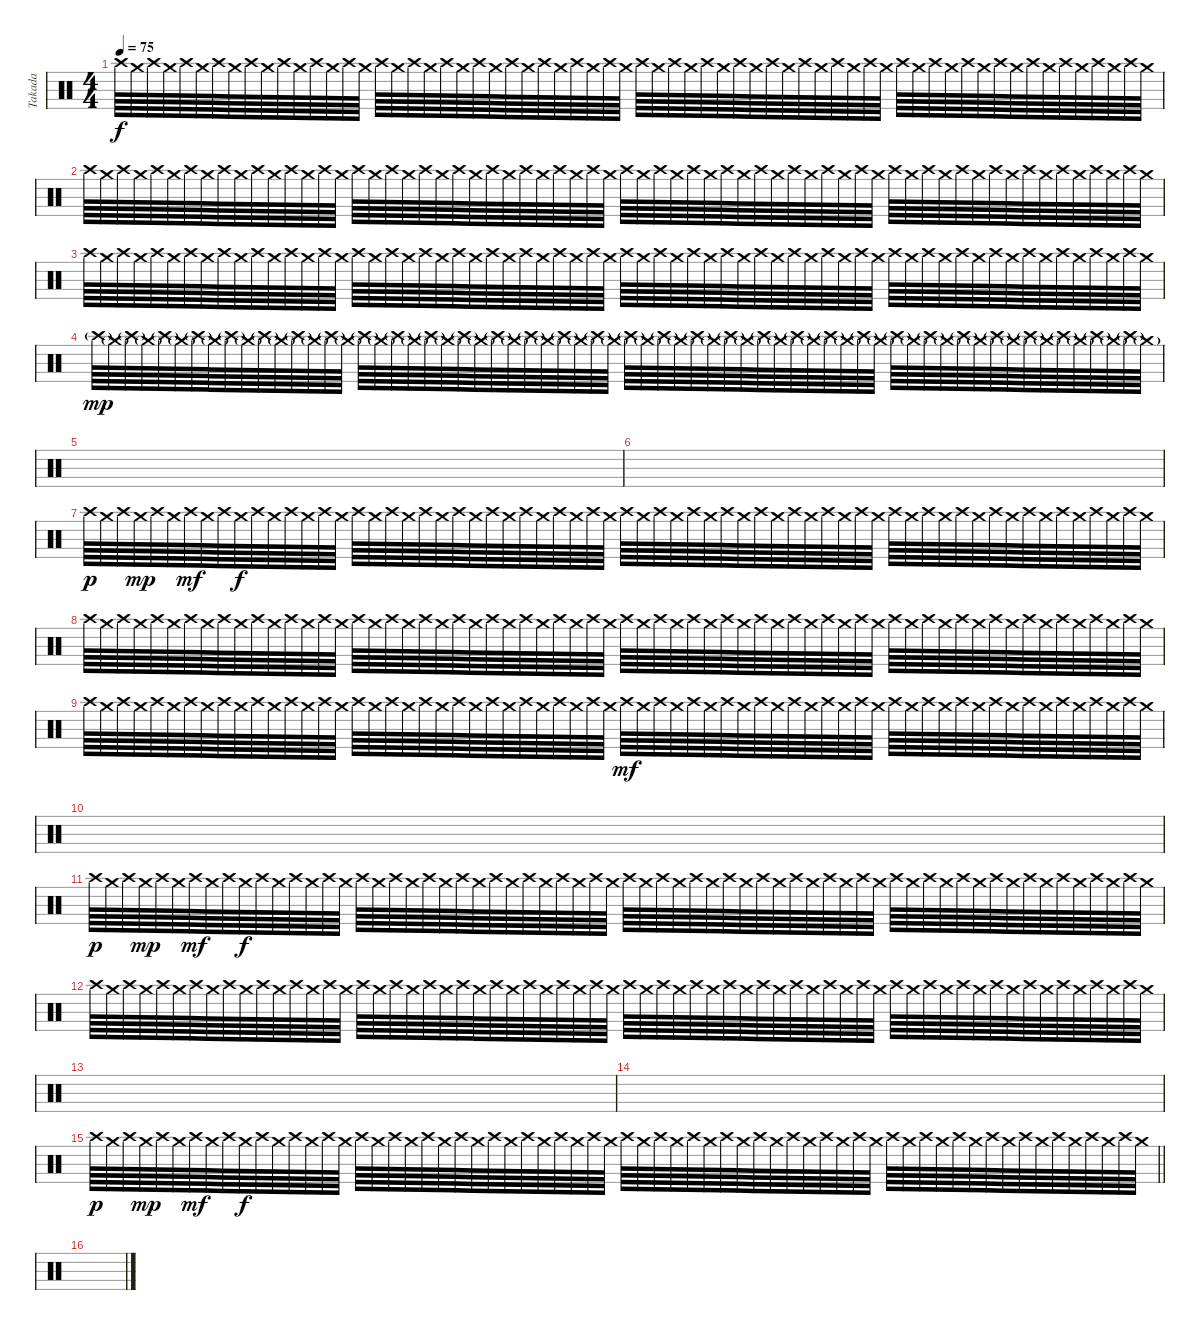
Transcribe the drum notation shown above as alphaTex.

\track ("Takada" "Takada") {instrument percussion}
\staff {score}
\articulation defaults
\ts (4 4)
\tempo 75
\clef neutral
\ks c "Crash high (hit)".64{dy f} "Crash medium (hit)".64 "Crash high (hit)".64 "Crash medium (hit)".64 "Crash high (hit)".64 "Crash medium (hit)".64 "Crash high (hit)".64 "Crash medium (hit)".64 "Crash high (hit)".64 "Crash medium (hit)".64 "Crash high (hit)".64 "Crash medium (hit)".64 "Crash high (hit)".64 "Crash medium (hit)".64 "Crash high (hit)".64 "Crash medium (hit)".64 "Crash high (hit)".64 "Crash medium (hit)".64 "Crash high (hit)".64 "Crash medium (hit)".64 "Crash high (hit)".64 "Crash medium (hit)".64 "Crash high (hit)".64 "Crash medium (hit)".64 "Crash high (hit)".64 "Crash medium (hit)".64 "Crash high (hit)".64 "Crash medium (hit)".64 "Crash high (hit)".64 "Crash medium (hit)".64 "Crash high (hit)".64 "Crash medium (hit)".64 "Crash high (hit)".64 "Crash medium (hit)".64 "Crash high (hit)".64 "Crash medium (hit)".64 "Crash high (hit)".64 "Crash medium (hit)".64 "Crash high (hit)".64 "Crash medium (hit)".64 "Crash high (hit)".64 "Crash medium (hit)".64 "Crash high (hit)".64 "Crash medium (hit)".64 "Crash high (hit)".64 "Crash medium (hit)".64 "Crash high (hit)".64 "Crash medium (hit)".64 "Crash high (hit)".64 "Crash medium (hit)".64 "Crash high (hit)".64 "Crash medium (hit)".64 "Crash high (hit)".64 "Crash medium (hit)".64 "Crash high (hit)".64 "Crash medium (hit)".64 "Crash high (hit)".64 "Crash medium (hit)".64 "Crash high (hit)".64 "Crash medium (hit)".64 "Crash high (hit)".64 "Crash medium (hit)".64 "Crash high (hit)".64 "Crash medium (hit)".64
|
"Crash high (hit)".64 "Crash medium (hit)".64 "Crash high (hit)".64 "Crash medium (hit)".64 "Crash high (hit)".64 "Crash medium (hit)".64 "Crash high (hit)".64 "Crash medium (hit)".64 "Crash high (hit)".64{volume 1} "Crash medium (hit)".64 "Crash high (hit)".64 "Crash medium (hit)".64 "Crash high (hit)".64 "Crash medium (hit)".64 "Crash high (hit)".64 "Crash medium (hit)".64 "Crash high (hit)".64 "Crash medium (hit)".64 "Crash high (hit)".64 "Crash medium (hit)".64 "Crash high (hit)".64 "Crash medium (hit)".64 "Crash high (hit)".64 "Crash medium (hit)".64 "Crash high (hit)".64 "Crash medium (hit)".64 "Crash high (hit)".64 "Crash medium (hit)".64 "Crash high (hit)".64 "Crash medium (hit)".64 "Crash high (hit)".64 "Crash medium (hit)".64 "Crash high (hit)".64 "Crash medium (hit)".64 "Crash high (hit)".64 "Crash medium (hit)".64 "Crash high (hit)".64 "Crash medium (hit)".64 "Crash high (hit)".64 "Crash medium (hit)".64 "Crash high (hit)".64 "Crash medium (hit)".64 "Crash high (hit)".64 "Crash medium (hit)".64 "Crash high (hit)".64 "Crash medium (hit)".64 "Crash high (hit)".64 "Crash medium (hit)".64 "Crash high (hit)".64 "Crash medium (hit)".64 "Crash high (hit)".64 "Crash medium (hit)".64 "Crash high (hit)".64 "Crash medium (hit)".64 "Crash high (hit)".64 "Crash medium (hit)".64 "Crash high (hit)".64 "Crash medium (hit)".64 "Crash high (hit)".64 "Crash medium (hit)".64 "Crash high (hit)".64 "Crash medium (hit)".64 "Crash high (hit)".64 "Crash medium (hit)".64 |
"Crash high (hit)".64 "Crash medium (hit)".64 "Crash high (hit)".64 "Crash medium (hit)".64 "Crash high (hit)".64 "Crash medium (hit)".64 "Crash high (hit)".64 "Crash medium (hit)".64 "Crash high (hit)".64 "Crash medium (hit)".64 "Crash high (hit)".64 "Crash medium (hit)".64 "Crash high (hit)".64 "Crash medium (hit)".64 "Crash high (hit)".64 "Crash medium (hit)".64 "Crash high (hit)".64 "Crash medium (hit)".64 "Crash high (hit)".64 "Crash medium (hit)".64 "Crash high (hit)".64 "Crash medium (hit)".64 "Crash high (hit)".64 "Crash medium (hit)".64 "Crash high (hit)".64 "Crash medium (hit)".64 "Crash high (hit)".64 "Crash medium (hit)".64 "Crash high (hit)".64 "Crash medium (hit)".64 "Crash high (hit)".64 "Crash medium (hit)".64 "Crash high (hit)".64 "Crash medium (hit)".64 "Crash high (hit)".64 "Crash medium (hit)".64 "Crash high (hit)".64 "Crash medium (hit)".64 "Crash high (hit)".64 "Crash medium (hit)".64 "Crash high (hit)".64 "Crash medium (hit)".64 "Crash high (hit)".64 "Crash medium (hit)".64 "Crash high (hit)".64 "Crash medium (hit)".64 "Crash high (hit)".64 "Crash medium (hit)".64 "Crash high (hit)".64 "Crash medium (hit)".64 "Crash high (hit)".64 "Crash medium (hit)".64 "Crash high (hit)".64 "Crash medium (hit)".64 "Crash high (hit)".64 "Crash medium (hit)".64 "Crash high (hit)".64 "Crash medium (hit)".64 "Crash high (hit)".64 "Crash medium (hit)".64 "Crash high (hit)".64 "Crash medium (hit)".64 "Crash high (hit)".64 "Crash medium (hit)".64 |
"Crash high (hit)"{g}.64{dy mp} "Crash medium (hit)"{g}.64 "Crash high (hit)"{g}.64 "Crash medium (hit)"{g}.64 "Crash high (hit)"{g}.64 "Crash medium (hit)"{g}.64 "Crash high (hit)"{g}.64 "Crash medium (hit)"{g}.64 "Crash high (hit)"{g}.64 "Crash medium (hit)"{g}.64 "Crash high (hit)"{g}.64 "Crash medium (hit)"{g}.64 "Crash high (hit)"{g}.64 "Crash medium (hit)"{g}.64 "Crash high (hit)"{g}.64 "Crash medium (hit)"{g}.64 "Crash high (hit)"{g}.64 "Crash medium (hit)"{g}.64 "Crash high (hit)"{g}.64 "Crash medium (hit)"{g}.64 "Crash high (hit)"{g}.64 "Crash medium (hit)"{g}.64 "Crash high (hit)"{g}.64 "Crash medium (hit)"{g}.64 "Crash high (hit)"{g}.64 "Crash medium (hit)"{g}.64 "Crash high (hit)"{g}.64 "Crash medium (hit)"{g}.64 "Crash high (hit)"{g}.64 "Crash medium (hit)"{g}.64 "Crash high (hit)"{g}.64 "Crash medium (hit)"{g}.64 "Crash high (hit)"{g}.64 "Crash medium (hit)"{g}.64 "Crash high (hit)"{g}.64 "Crash medium (hit)"{g}.64 "Crash high (hit)"{g}.64 "Crash medium (hit)"{g}.64 "Crash high (hit)"{g}.64 "Crash medium (hit)"{g}.64 "Crash high (hit)"{g}.64 "Crash medium (hit)"{g}.64 "Crash high (hit)"{g}.64 "Crash medium (hit)"{g}.64 "Crash high (hit)"{g}.64 "Crash medium (hit)"{g}.64 "Crash high (hit)"{g}.64 "Crash medium (hit)"{g}.64 "Crash high (hit)"{g}.64 "Crash medium (hit)"{g}.64 "Crash high (hit)"{g}.64 "Crash medium (hit)"{g}.64 "Crash high (hit)"{g}.64 "Crash medium (hit)"{g}.64 "Crash high (hit)"{g}.64 "Crash medium (hit)"{g}.64 "Crash high (hit)"{g}.64 "Crash medium (hit)"{g}.64 "Crash high (hit)"{g}.64 "Crash medium (hit)"{g}.64 "Crash high (hit)"{g}.64 "Crash medium (hit)"{g}.64 "Crash high (hit)"{g}.64 "Crash medium (hit)"{g}.64 |
|
|
"Crash high (hit)".64{dy p} "Crash medium (hit)".64 "Crash high (hit)".64 "Crash medium (hit)".64{dy mp} "Crash high (hit)".64 "Crash medium (hit)".64 "Crash high (hit)".64{dy mf} "Crash medium (hit)".64 "Crash high (hit)".64 "Crash medium (hit)".64{dy f} "Crash high (hit)".64 "Crash medium (hit)".64 "Crash high (hit)".64 "Crash medium (hit)".64 "Crash high (hit)".64 "Crash medium (hit)".64 "Crash high (hit)".64{volume 2} "Crash medium (hit)".64 "Crash high (hit)".64 "Crash medium (hit)".64 "Crash high (hit)".64 "Crash medium (hit)".64 "Crash high (hit)".64 "Crash medium (hit)".64 "Crash high (hit)".64 "Crash medium (hit)".64 "Crash high (hit)".64 "Crash medium (hit)".64 "Crash high (hit)".64 "Crash medium (hit)".64 "Crash high (hit)".64 "Crash medium (hit)".64 "Crash high (hit)".64 "Crash medium (hit)".64 "Crash high (hit)".64 "Crash medium (hit)".64 "Crash high (hit)".64 "Crash medium (hit)".64 "Crash high (hit)".64 "Crash medium (hit)".64 "Crash high (hit)".64 "Crash medium (hit)".64 "Crash high (hit)".64 "Crash medium (hit)".64 "Crash high (hit)".64 "Crash medium (hit)".64 "Crash high (hit)".64 "Crash medium (hit)".64 "Crash high (hit)".64 "Crash medium (hit)".64 "Crash high (hit)".64 "Crash medium (hit)".64 "Crash high (hit)".64 "Crash medium (hit)".64 "Crash high (hit)".64 "Crash medium (hit)".64 "Crash high (hit)".64 "Crash medium (hit)".64 "Crash high (hit)".64 "Crash medium (hit)".64 "Crash high (hit)".64 "Crash medium (hit)".64 "Crash high (hit)".64 "Crash medium (hit)".64 |
"Crash high (hit)".64{volume 1} "Crash medium (hit)".64 "Crash high (hit)".64 "Crash medium (hit)".64 "Crash high (hit)".64 "Crash medium (hit)".64 "Crash high (hit)".64 "Crash medium (hit)".64 "Crash high (hit)".64 "Crash medium (hit)".64 "Crash high (hit)".64 "Crash medium (hit)".64 "Crash high (hit)".64 "Crash medium (hit)".64 "Crash high (hit)".64 "Crash medium (hit)".64 "Crash high (hit)".64 "Crash medium (hit)".64 "Crash high (hit)".64 "Crash medium (hit)".64 "Crash high (hit)".64 "Crash medium (hit)".64 "Crash high (hit)".64 "Crash medium (hit)".64 "Crash high (hit)".64 "Crash medium (hit)".64 "Crash high (hit)".64 "Crash medium (hit)".64 "Crash high (hit)".64 "Crash medium (hit)".64 "Crash high (hit)".64 "Crash medium (hit)".64 "Crash high (hit)".64 "Crash medium (hit)".64 "Crash high (hit)".64 "Crash medium (hit)".64 "Crash high (hit)".64 "Crash medium (hit)".64 "Crash high (hit)".64 "Crash medium (hit)".64 "Crash high (hit)".64 "Crash medium (hit)".64 "Crash high (hit)".64 "Crash medium (hit)".64 "Crash high (hit)".64 "Crash medium (hit)".64 "Crash high (hit)".64 "Crash medium (hit)".64 "Crash high (hit)".64 "Crash medium (hit)".64 "Crash high (hit)".64 "Crash medium (hit)".64 "Crash high (hit)".64 "Crash medium (hit)".64 "Crash high (hit)".64 "Crash medium (hit)".64 "Crash high (hit)".64 "Crash medium (hit)".64 "Crash high (hit)".64 "Crash medium (hit)".64 "Crash high (hit)".64 "Crash medium (hit)".64 "Crash high (hit)".64 "Crash medium (hit)".64 |
"Crash high (hit)".64 "Crash medium (hit)".64 "Crash high (hit)".64 "Crash medium (hit)".64 "Crash high (hit)".64 "Crash medium (hit)".64 "Crash high (hit)".64 "Crash medium (hit)".64 "Crash high (hit)".64 "Crash medium (hit)".64 "Crash high (hit)".64 "Crash medium (hit)".64 "Crash high (hit)".64 "Crash medium (hit)".64 "Crash high (hit)".64 "Crash medium (hit)".64 "Crash high (hit)".64 "Crash medium (hit)".64 "Crash high (hit)".64 "Crash medium (hit)".64 "Crash high (hit)".64 "Crash medium (hit)".64 "Crash high (hit)".64 "Crash medium (hit)".64 "Crash high (hit)".64 "Crash medium (hit)".64 "Crash high (hit)".64 "Crash medium (hit)".64 "Crash high (hit)".64 "Crash medium (hit)".64 "Crash high (hit)".64 "Crash medium (hit)".64 "Crash high (hit)".64{dy mf volume 0} "Crash medium (hit)".64 "Crash high (hit)".64 "Crash medium (hit)".64 "Crash high (hit)".64 "Crash medium (hit)".64 "Crash high (hit)".64 "Crash medium (hit)".64 "Crash high (hit)".64 "Crash medium (hit)".64 "Crash high (hit)".64 "Crash medium (hit)".64 "Crash high (hit)".64 "Crash medium (hit)".64 "Crash high (hit)".64 "Crash medium (hit)".64 "Crash high (hit)".64 "Crash medium (hit)".64 "Crash high (hit)".64 "Crash medium (hit)".64 "Crash high (hit)".64 "Crash medium (hit)".64 "Crash high (hit)".64 "Crash medium (hit)".64 "Crash high (hit)".64 "Crash medium (hit)".64 "Crash high (hit)".64 "Crash medium (hit)".64 "Crash high (hit)".64 "Crash medium (hit)".64 "Crash high (hit)".64 "Crash medium (hit)".64 |
|
"Crash high (hit)".64{dy p} "Crash medium (hit)".64 "Crash high (hit)".64 "Crash medium (hit)".64{dy mp} "Crash high (hit)".64 "Crash medium (hit)".64 "Crash high (hit)".64{dy mf} "Crash medium (hit)".64 "Crash high (hit)".64 "Crash medium (hit)".64{dy f} "Crash high (hit)".64 "Crash medium (hit)".64 "Crash high (hit)".64 "Crash medium (hit)".64 "Crash high (hit)".64 "Crash medium (hit)".64 "Crash high (hit)".64{volume 3} "Crash medium (hit)".64 "Crash high (hit)".64 "Crash medium (hit)".64 "Crash high (hit)".64 "Crash medium (hit)".64 "Crash high (hit)".64 "Crash medium (hit)".64 "Crash high (hit)".64 "Crash medium (hit)".64 "Crash high (hit)".64 "Crash medium (hit)".64 "Crash high (hit)".64 "Crash medium (hit)".64 "Crash high (hit)".64 "Crash medium (hit)".64 "Crash high (hit)".64 "Crash medium (hit)".64 "Crash high (hit)".64 "Crash medium (hit)".64 "Crash high (hit)".64 "Crash medium (hit)".64 "Crash high (hit)".64 "Crash medium (hit)".64 "Crash high (hit)".64 "Crash medium (hit)".64 "Crash high (hit)".64 "Crash medium (hit)".64 "Crash high (hit)".64 "Crash medium (hit)".64 "Crash high (hit)".64 "Crash medium (hit)".64 "Crash high (hit)".64 "Crash medium (hit)".64 "Crash high (hit)".64 "Crash medium (hit)".64 "Crash high (hit)".64 "Crash medium (hit)".64 "Crash high (hit)".64 "Crash medium (hit)".64 "Crash high (hit)".64 "Crash medium (hit)".64 "Crash high (hit)".64 "Crash medium (hit)".64 "Crash high (hit)".64 "Crash medium (hit)".64 "Crash high (hit)".64 "Crash medium (hit)".64 |
"Crash high (hit)".64{volume 0} "Crash medium (hit)".64 "Crash high (hit)".64 "Crash medium (hit)".64 "Crash high (hit)".64 "Crash medium (hit)".64 "Crash high (hit)".64 "Crash medium (hit)".64 "Crash high (hit)".64 "Crash medium (hit)".64 "Crash high (hit)".64 "Crash medium (hit)".64 "Crash high (hit)".64 "Crash medium (hit)".64 "Crash high (hit)".64 "Crash medium (hit)".64 "Crash high (hit)".64 "Crash medium (hit)".64 "Crash high (hit)".64 "Crash medium (hit)".64 "Crash high (hit)".64 "Crash medium (hit)".64 "Crash high (hit)".64 "Crash medium (hit)".64 "Crash high (hit)".64 "Crash medium (hit)".64 "Crash high (hit)".64 "Crash medium (hit)".64 "Crash high (hit)".64 "Crash medium (hit)".64 "Crash high (hit)".64 "Crash medium (hit)".64 "Crash high (hit)".64 "Crash medium (hit)".64 "Crash high (hit)".64 "Crash medium (hit)".64 "Crash high (hit)".64 "Crash medium (hit)".64 "Crash high (hit)".64 "Crash medium (hit)".64 "Crash high (hit)".64 "Crash medium (hit)".64 "Crash high (hit)".64 "Crash medium (hit)".64 "Crash high (hit)".64 "Crash medium (hit)".64 "Crash high (hit)".64 "Crash medium (hit)".64 "Crash high (hit)".64 "Crash medium (hit)".64 "Crash high (hit)".64 "Crash medium (hit)".64 "Crash high (hit)".64 "Crash medium (hit)".64 "Crash high (hit)".64 "Crash medium (hit)".64 "Crash high (hit)".64 "Crash medium (hit)".64 "Crash high (hit)".64 "Crash medium (hit)".64 "Crash high (hit)".64 "Crash medium (hit)".64 "Crash high (hit)".64 "Crash medium (hit)".64 |
|
|
\barLineRight lightlight "Crash high (hit)".64{dy p} "Crash medium (hit)".64 "Crash high (hit)".64 "Crash medium (hit)".64{dy mp} "Crash high (hit)".64 "Crash medium (hit)".64 "Crash high (hit)".64{dy mf} "Crash medium (hit)".64 "Crash high (hit)".64 "Crash medium (hit)".64{dy f} "Crash high (hit)".64 "Crash medium (hit)".64 "Crash high (hit)".64 "Crash medium (hit)".64 "Crash high (hit)".64 "Crash medium (hit)".64 "Crash high (hit)".64{volume 3} "Crash medium (hit)".64 "Crash high (hit)".64 "Crash medium (hit)".64 "Crash high (hit)".64 "Crash medium (hit)".64 "Crash high (hit)".64 "Crash medium (hit)".64 "Crash high (hit)".64 "Crash medium (hit)".64 "Crash high (hit)".64 "Crash medium (hit)".64 "Crash high (hit)".64 "Crash medium (hit)".64 "Crash high (hit)".64 "Crash medium (hit)".64 "Crash high (hit)".64 "Crash medium (hit)".64 "Crash high (hit)".64 "Crash medium (hit)".64 "Crash high (hit)".64 "Crash medium (hit)".64 "Crash high (hit)".64 "Crash medium (hit)".64 "Crash high (hit)".64 "Crash medium (hit)".64 "Crash high (hit)".64 "Crash medium (hit)".64 "Crash high (hit)".64 "Crash medium (hit)".64 "Crash high (hit)".64 "Crash medium (hit)".64 "Crash high (hit)".64 "Crash medium (hit)".64 "Crash high (hit)".64 "Crash medium (hit)".64 "Crash high (hit)".64 "Crash medium (hit)".64 "Crash high (hit)".64 "Crash medium (hit)".64 "Crash high (hit)".64 "Crash medium (hit)".64 "Crash high (hit)".64 "Crash medium (hit)".64 "Crash high (hit)".64 "Crash medium (hit)".64 "Crash high (hit)".64 "Crash medium (hit)".64
|
\section ("" "")
